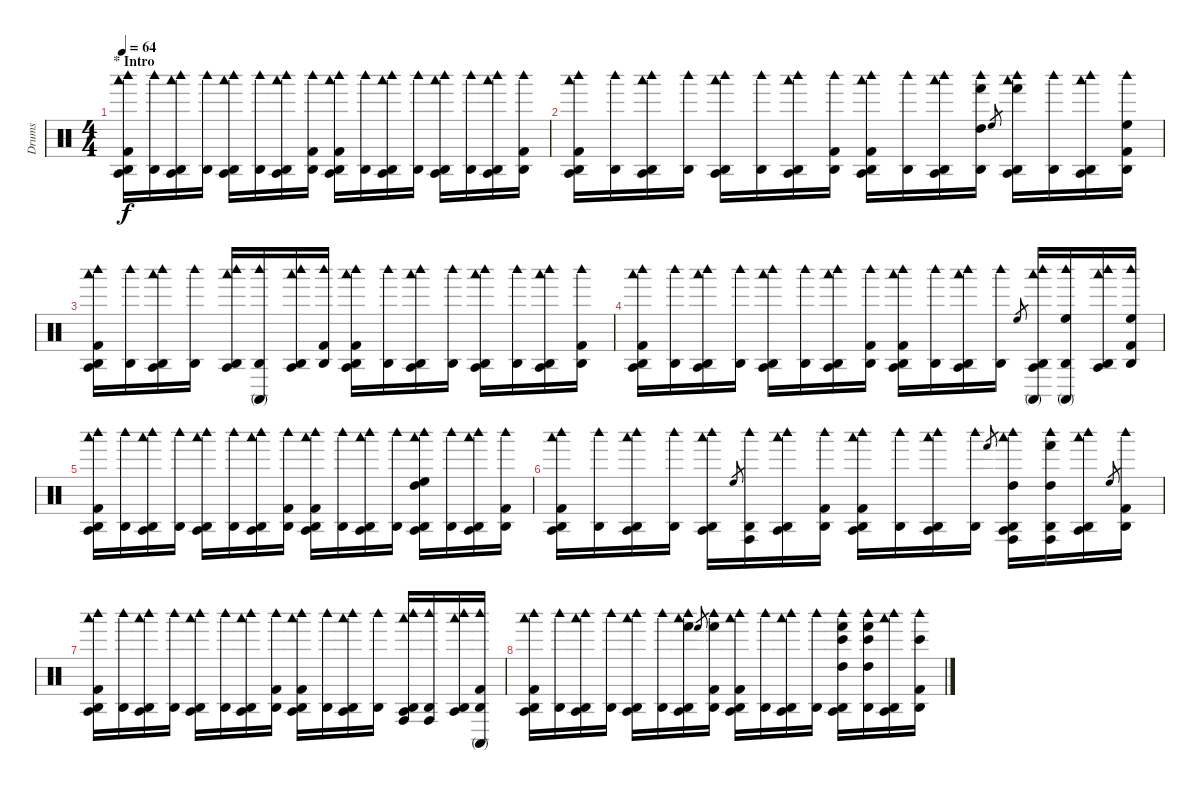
\track ("Drums" "Drums") {instrument percussion}
\staff {score}
\articulation defaults
\ts (4 4)
\section ("" "* Intro")
\tempo 64
\clef neutral
\ks c
("Agogo tow (hit)" "Kick (hit) 2" "Agogo high (hit)" "Woodblock high (hit)" "Woodblock low (hit)").16{dy f} ("Woodblock high (hit)" "Agogo high (hit)").16 ("Woodblock high (hit)" "Agogo tow (hit)" "Woodblock low (hit)" "Agogo high (hit)").16 ("Woodblock high (hit)" "Agogo high (hit)").16 ("Woodblock high (hit)" "Woodblock low (hit)" "Agogo high (hit)" "Agogo tow (hit)").16 ("Agogo high (hit)" "Woodblock high (hit)").16 ("Woodblock high (hit)" "Agogo tow (hit)" "Agogo high (hit)" "Woodblock low (hit)").16 ("Woodblock high (hit)" "Agogo high (hit)" "Kick (hit) 2").16 ("Agogo high (hit)" "Woodblock high (hit)" "Agogo tow (hit)" "Woodblock low (hit)" "Kick (hit) 2").16 ("Woodblock high (hit)" "Agogo high (hit)").16 ("Woodblock low (hit)" "Agogo high (hit)" "Woodblock high (hit)" "Agogo tow (hit)").16 ("Agogo high (hit)" "Woodblock high (hit)").16 ("Woodblock low (hit)" "Agogo tow (hit)" "Agogo high (hit)" "Woodblock high (hit)").16 ("Agogo high (hit)" "Woodblock high (hit)").16 ("Agogo tow (hit)" "Woodblock low (hit)" "Agogo high (hit)" "Woodblock high (hit)").16 ("Kick (hit) 2" "Woodblock high (hit)" "Agogo high (hit)").16 |
("Woodblock low (hit)" "Kick (hit) 2" "Agogo tow (hit)" "Agogo high (hit)" "Woodblock high (hit)").16 ("Agogo high (hit)" "Woodblock high (hit)").16 ("Agogo high (hit)" "Woodblock low (hit)" "Woodblock high (hit)" "Agogo tow (hit)").16 ("Woodblock high (hit)" "Agogo high (hit)").16 ("Agogo high (hit)" "Woodblock low (hit)" "Agogo tow (hit)" "Woodblock high (hit)").16 ("Woodblock high (hit)" "Agogo high (hit)").16 ("Woodblock low (hit)" "Agogo high (hit)" "Agogo tow (hit)" "Woodblock high (hit)").16 ("Woodblock high (hit)" "Kick (hit) 2" "Agogo high (hit)").16 ("Woodblock high (hit)" "Agogo tow (hit)" "Kick (hit) 2" "Woodblock low (hit)" "Agogo high (hit)").16 ("Woodblock high (hit)" "Agogo high (hit)").16 ("Woodblock high (hit)" "Agogo high (hit)" "Agogo tow (hit)" "Woodblock low (hit)").16 ("Woodblock high (hit)" "Agogo high (hit)" "High Tom (hit)" "Hand (hit)").16 "High Floor Tom (hit)".8{gr} ("Agogo high (hit)" "Woodblock high (hit)" "Agogo tow (hit)" "Woodblock low (hit)" "Hand (hit)").16 ("Woodblock high (hit)" "Agogo high (hit)").16 ("Agogo high (hit)" "Agogo tow (hit)" "Woodblock low (hit)" "Woodblock high (hit)").16 ("Kick (hit) 2" "Woodblock high (hit)" "Agogo high (hit)" "High Floor Tom (hit)").16 |
("Woodblock high (hit)" "Agogo tow (hit)" "Agogo high (hit)" "Woodblock low (hit)" "Kick (hit) 2").16 ("Woodblock high (hit)" "Agogo high (hit)").16 ("Agogo tow (hit)" "Woodblock high (hit)" "Woodblock low (hit)" "Agogo high (hit)").16 ("Woodblock high (hit)" "Agogo high (hit)").16 ("Woodblock high (hit)" "Agogo high (hit)" "Woodblock low (hit)" "Agogo tow (hit)").16 ("Conga high (mute)" "Agogo high (hit)" "Woodblock high (hit)").16 ("Woodblock low (hit)" "Agogo high (hit)" "Woodblock high (hit)" "Agogo tow (hit)").16 ("Woodblock high (hit)" "Agogo high (hit)" "Kick (hit) 2").16 ("Woodblock high (hit)" "Agogo tow (hit)" "Kick (hit) 2" "Woodblock low (hit)" "Agogo high (hit)").16 ("Agogo high (hit)" "Woodblock high (hit)").16 ("Agogo tow (hit)" "Woodblock low (hit)" "Woodblock high (hit)" "Agogo high (hit)").16 ("Woodblock high (hit)" "Agogo high (hit)").16 ("Woodblock low (hit)" "Woodblock high (hit)" "Agogo high (hit)" "Agogo tow (hit)").16 ("Agogo high (hit)" "Woodblock high (hit)").16 ("Woodblock high (hit)" "Agogo tow (hit)" "Woodblock low (hit)" "Agogo high (hit)").16 ("Kick (hit) 2" "Agogo high (hit)" "Woodblock high (hit)").16 |
("Agogo high (hit)" "Agogo tow (hit)" "Kick (hit) 2" "Woodblock high (hit)" "Woodblock low (hit)").16 ("Woodblock high (hit)" "Agogo high (hit)").16 ("Agogo tow (hit)" "Woodblock low (hit)" "Woodblock high (hit)" "Agogo high (hit)").16 ("Agogo high (hit)" "Woodblock high (hit)").16 ("Woodblock high (hit)" "Woodblock low (hit)" "Agogo high (hit)" "Agogo tow (hit)").16 ("Agogo high (hit)" "Woodblock high (hit)").16 ("Agogo tow (hit)" "Agogo high (hit)" "Woodblock low (hit)" "Woodblock high (hit)").16 ("Kick (hit) 2" "Agogo high (hit)" "Woodblock high (hit)").16 ("Woodblock low (hit)" "Agogo tow (hit)" "Woodblock high (hit)" "Kick (hit) 2" "Agogo high (hit)").16 ("Agogo high (hit)" "Woodblock high (hit)").16 ("Woodblock high (hit)" "Woodblock low (hit)" "Agogo tow (hit)" "Agogo high (hit)").16 ("Agogo high (hit)" "Woodblock high (hit)").16 "High Floor Tom (hit)".8{gr} ("Agogo high (hit)" "Agogo tow (hit)" "Woodblock high (hit)" "Woodblock low (hit)" "Conga high (mute)").16 ("Woodblock high (hit)" "Agogo high (hit)" "Conga high (mute)" "High Floor Tom (hit)").16 ("Agogo high (hit)" "Woodblock low (hit)" "Agogo tow (hit)" "Woodblock high (hit)").16 ("Agogo high (hit)" "Kick (hit) 2" "Woodblock high (hit)" "High Floor Tom (hit)").16 |
("Woodblock low (hit)" "Woodblock high (hit)" "Agogo tow (hit)" "Agogo high (hit)" "Kick (hit) 2").16 ("Agogo high (hit)" "Woodblock high (hit)").16 ("Woodblock high (hit)" "Woodblock low (hit)" "Agogo tow (hit)" "Agogo high (hit)").16 ("Agogo high (hit)" "Woodblock high (hit)").16 ("Agogo high (hit)" "Woodblock low (hit)" "Woodblock high (hit)" "Agogo tow (hit)").16 ("Woodblock high (hit)" "Agogo high (hit)").16 ("Agogo high (hit)" "Woodblock low (hit)" "Woodblock high (hit)" "Agogo tow (hit)").16 ("Kick (hit) 2" "Agogo high (hit)" "Woodblock high (hit)").16 ("Woodblock high (hit)" "Kick (hit) 2" "Agogo tow (hit)" "Agogo high (hit)" "Woodblock low (hit)").16 ("Agogo high (hit)" "Woodblock high (hit)").16 ("Agogo tow (hit)" "Woodblock high (hit)" "Agogo high (hit)" "Woodblock low (hit)").16 ("Agogo high (hit)" "Woodblock high (hit)").16 ("Woodblock high (hit)" "Agogo high (hit)" "Agogo tow (hit)" "Woodblock low (hit)" "High Tom (hit)" "High Floor Tom (hit)").16 ("Woodblock high (hit)" "Agogo high (hit)").16 ("Agogo high (hit)" "Woodblock low (hit)" "Agogo tow (hit)" "Woodblock high (hit)").16 ("Kick (hit) 2" "Woodblock high (hit)" "Agogo high (hit)").16 |
("Woodblock low (hit)" "Kick (hit) 2" "Woodblock high (hit)" "Agogo high (hit)" "Agogo tow (hit)").16 ("Agogo high (hit)" "Woodblock high (hit)").16 ("Woodblock high (hit)" "Agogo tow (hit)" "Agogo high (hit)" "Woodblock low (hit)").16 ("Agogo high (hit)" "Woodblock high (hit)").16 ("Agogo high (hit)" "Woodblock low (hit)" "Woodblock high (hit)" "Agogo tow (hit)").16 "High Floor Tom (hit)".8{gr} ("Conga high (hit)" "Woodblock high (hit)" "Agogo high (hit)").16 ("Woodblock high (hit)" "Agogo tow (hit)" "Woodblock low (hit)" "Agogo high (hit)").16 ("Agogo high (hit)" "Woodblock high (hit)" "Kick (hit) 2").16 ("Agogo tow (hit)" "Woodblock low (hit)" "Kick (hit) 2" "Agogo high (hit)" "Woodblock high (hit)").16 ("Woodblock high (hit)" "Agogo high (hit)").16 ("Agogo high (hit)" "Woodblock low (hit)" "Agogo tow (hit)" "Woodblock high (hit)").16 ("Woodblock high (hit)" "Agogo high (hit)").16 "Hand (hit)".8{gr} ("Agogo high (hit)" "Agogo tow (hit)" "Woodblock high (hit)" "Woodblock low (hit)" "High Tom (hit)" "Conga high (hit)").16 ("Woodblock high (hit)" "Agogo high (hit)" "Hand (hit)" "Conga high (hit)" "High Tom (hit)").16 ("Agogo tow (hit)" "Agogo high (hit)" "Woodblock low (hit)" "Woodblock high (hit)").16 "High Floor Tom (hit)".8{gr} ("Agogo high (hit)" "Kick (hit) 2" "Woodblock high (hit)").16 |
("Agogo tow (hit)" "Kick (hit) 2" "Woodblock high (hit)" "Agogo high (hit)" "Woodblock low (hit)").16 ("Agogo high (hit)" "Woodblock high (hit)").16 ("Woodblock high (hit)" "Agogo high (hit)" "Woodblock low (hit)" "Agogo tow (hit)").16 ("Woodblock high (hit)" "Agogo high (hit)").16 ("Agogo tow (hit)" "Woodblock low (hit)" "Agogo high (hit)" "Woodblock high (hit)").16 ("Agogo high (hit)" "Woodblock high (hit)").16 ("Agogo tow (hit)" "Woodblock low (hit)" "Woodblock high (hit)" "Agogo high (hit)").16 ("Kick (hit) 2" "Agogo high (hit)" "Woodblock high (hit)").16 ("Kick (hit) 2" "Woodblock low (hit)" "Agogo high (hit)" "Agogo tow (hit)" "Woodblock high (hit)").16 ("Agogo high (hit)" "Woodblock high (hit)").16 ("Agogo high (hit)" "Agogo tow (hit)" "Woodblock high (hit)" "Woodblock low (hit)").16 ("Woodblock high (hit)" "Agogo high (hit)").16 ("Woodblock low (hit)" "Agogo tow (hit)" "Woodblock high (hit)" "Agogo high (hit)" "Conga high (hit)").16 ("Conga high (hit)" "Agogo high (hit)" "Woodblock high (hit)").16 ("Agogo tow (hit)" "Woodblock high (hit)" "Agogo high (hit)" "Woodblock low (hit)").16 ("Conga high (mute)" "Agogo high (hit)" "Woodblock high (hit)" "Kick (hit) 2").16 |
("Agogo tow (hit)" "Woodblock high (hit)" "Woodblock low (hit)" "Agogo high (hit)" "Kick (hit) 2").16 ("Woodblock high (hit)" "Agogo high (hit)").16 ("Woodblock low (hit)" "Agogo tow (hit)" "Woodblock high (hit)" "Agogo high (hit)").16 ("Agogo high (hit)" "Woodblock high (hit)").16 ("Agogo tow (hit)" "Woodblock low (hit)" "Agogo high (hit)" "Woodblock high (hit)").16 ("Agogo high (hit)" "Woodblock high (hit)").16 ("Agogo high (hit)" "Woodblock low (hit)" "Woodblock high (hit)" "Agogo tow (hit)" "Hand (hit)").16 "Hand (hit)".8{gr} ("Hand (hit)" "Agogo high (hit)" "Woodblock high (hit)" "Kick (hit) 2").16 ("Kick (hit) 2" "Agogo high (hit)" "Woodblock low (hit)" "Agogo tow (hit)" "Woodblock high (hit)").16 ("Woodblock high (hit)" "Agogo high (hit)").16 ("Agogo high (hit)" "Agogo tow (hit)" "Woodblock high (hit)" "Woodblock low (hit)").16 ("Woodblock high (hit)" "Agogo high (hit)").16 ("High Tom (hit)" "Bongo High (hit)" "Hand (hit)" "Agogo high (hit)" "Woodblock high (hit)" "Agogo tow (hit)").16 ("Bongo High (hit)" "Hand (hit)" "High Tom (hit)" "Agogo high (hit)" "Woodblock high (hit)").16 ("Woodblock low (hit)" "Agogo tow (hit)" "Woodblock high (hit)" "Agogo high (hit)").16 ("Bongo High (hit)" "Kick (hit) 2" "Agogo high (hit)" "Woodblock high (hit)").16
